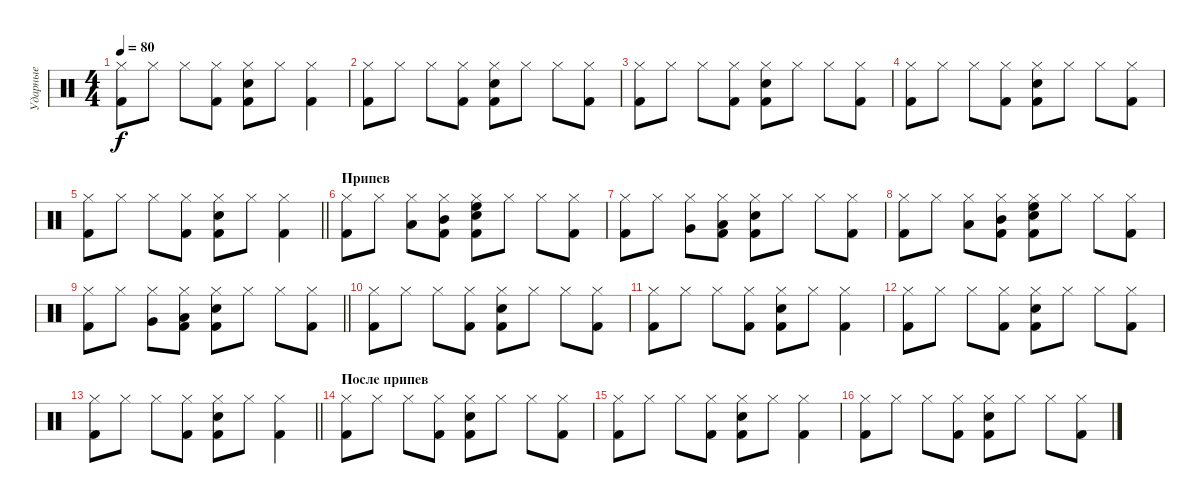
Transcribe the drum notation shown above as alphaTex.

\track ("Ударные" "Ударные") {instrument percussion}
\staff {score}
\articulation defaults
\ts (4 4)
\tempo 80
\clef neutral
\ks c
("Kick (hit) 2" "Hi-Hat (closed)").8{dy f} "Hi-Hat (closed)".8 "Hi-Hat (closed)".8 ("Kick (hit) 2" "Hi-Hat (closed)").8 ("Snare (hit) 2" "Kick (hit) 2" "Hi-Hat (closed)").8 "Hi-Hat (closed)".8 ("Kick (hit) 2" "Hi-Hat (closed)").4 |
("Kick (hit) 2" "Hi-Hat (closed)").8 "Hi-Hat (closed)".8 "Hi-Hat (closed)".8 ("Kick (hit) 2" "Hi-Hat (closed)").8 ("Snare (hit) 2" "Kick (hit) 2" "Hi-Hat (closed)").8 "Hi-Hat (closed)".8 "Hi-Hat (closed)".8 ("Kick (hit) 2" "Hi-Hat (closed)").8 |
("Kick (hit) 2" "Hi-Hat (closed)").8 "Hi-Hat (closed)".8 "Hi-Hat (closed)".8 ("Kick (hit) 2" "Hi-Hat (closed)").8 ("Snare (hit) 2" "Kick (hit) 2" "Hi-Hat (closed)").8 "Hi-Hat (closed)".8 "Hi-Hat (closed)".8 ("Kick (hit) 2" "Hi-Hat (closed)").8 |
("Kick (hit) 2" "Hi-Hat (closed)").8 "Hi-Hat (closed)".8 "Hi-Hat (closed)".8 ("Kick (hit) 2" "Hi-Hat (closed)").8 ("Snare (hit) 2" "Kick (hit) 2" "Hi-Hat (closed)").8 "Hi-Hat (closed)".8 "Hi-Hat (closed)".8 ("Kick (hit) 2" "Hi-Hat (closed)").8 |
\barLineRight lightlight
("Kick (hit) 2" "Hi-Hat (closed)").8 "Hi-Hat (closed)".8 "Hi-Hat (closed)".8 ("Kick (hit) 2" "Hi-Hat (closed)").8 ("Snare (hit) 2" "Kick (hit) 2" "Hi-Hat (closed)").8 "Hi-Hat (closed)".8 ("Kick (hit) 2" "Hi-Hat (closed)").4 |
\section ("" "Припев")
("Kick (hit) 2" "Hi-Hat (closed)").8 "Hi-Hat (closed)".8 ("Hi-Hat (closed)" "Low Tom (hit)").8 ("Kick (hit) 2" "Hi-Hat (closed)" "Mid Tom (hit)").8 ("Snare (hit) 2" "Kick (hit) 2" "Hi-Hat (closed)" "High Floor Tom (hit)").8 "Hi-Hat (closed)".8 "Hi-Hat (closed)".8 ("Kick (hit) 2" "Hi-Hat (closed)").8 |
("Kick (hit) 2" "Hi-Hat (closed)").8 "Hi-Hat (closed)".8 ("Hi-Hat (closed)" "Very Low Tom (hit)").8 ("Kick (hit) 2" "Hi-Hat (closed)" "Low Floor Tom (hit)").8 ("Snare (hit) 2" "Kick (hit) 2" "Hi-Hat (closed)").8 "Hi-Hat (closed)".8 "Hi-Hat (closed)".8 ("Kick (hit) 2" "Hi-Hat (closed)").8 |
("Kick (hit) 2" "Hi-Hat (closed)").8 "Hi-Hat (closed)".8 ("Hi-Hat (closed)" "Low Tom (hit)").8 ("Kick (hit) 2" "Hi-Hat (closed)" "Mid Tom (hit)").8 ("Snare (hit) 2" "Kick (hit) 2" "Hi-Hat (closed)" "High Floor Tom (hit)").8 "Hi-Hat (closed)".8 "Hi-Hat (closed)".8 ("Kick (hit) 2" "Hi-Hat (closed)").8 |
\barLineRight lightlight
("Kick (hit) 2" "Hi-Hat (closed)").8 "Hi-Hat (closed)".8 ("Hi-Hat (closed)" "Very Low Tom (hit)").8 ("Kick (hit) 2" "Hi-Hat (closed)" "Low Floor Tom (hit)").8 ("Snare (hit) 2" "Kick (hit) 2" "Hi-Hat (closed)").8 "Hi-Hat (closed)".8 "Hi-Hat (closed)".8 ("Kick (hit) 2" "Hi-Hat (closed)").8 |
("Kick (hit) 2" "Hi-Hat (closed)").8 "Hi-Hat (closed)".8 "Hi-Hat (closed)".8 ("Kick (hit) 2" "Hi-Hat (closed)").8 ("Snare (hit) 2" "Kick (hit) 2" "Hi-Hat (closed)").8 "Hi-Hat (closed)".8 "Hi-Hat (closed)".8 ("Kick (hit) 2" "Hi-Hat (closed)").8 |
("Kick (hit) 2" "Hi-Hat (closed)").8 "Hi-Hat (closed)".8 "Hi-Hat (closed)".8 ("Kick (hit) 2" "Hi-Hat (closed)").8 ("Snare (hit) 2" "Kick (hit) 2" "Hi-Hat (closed)").8 "Hi-Hat (closed)".8 ("Kick (hit) 2" "Hi-Hat (closed)").4 |
("Kick (hit) 2" "Hi-Hat (closed)").8 "Hi-Hat (closed)".8 "Hi-Hat (closed)".8 ("Kick (hit) 2" "Hi-Hat (closed)").8 ("Snare (hit) 2" "Kick (hit) 2" "Hi-Hat (closed)").8 "Hi-Hat (closed)".8 "Hi-Hat (closed)".8 ("Kick (hit) 2" "Hi-Hat (closed)").8 |
\barLineRight lightlight
("Kick (hit) 2" "Hi-Hat (closed)").8 "Hi-Hat (closed)".8 "Hi-Hat (closed)".8 ("Kick (hit) 2" "Hi-Hat (closed)").8 ("Snare (hit) 2" "Kick (hit) 2" "Hi-Hat (closed)").8 "Hi-Hat (closed)".8 ("Kick (hit) 2" "Hi-Hat (closed)").4 |
\section ("" "После припев")
("Kick (hit) 2" "Hi-Hat (closed)").8 "Hi-Hat (closed)".8 "Hi-Hat (closed)".8 ("Kick (hit) 2" "Hi-Hat (closed)").8 ("Snare (hit) 2" "Kick (hit) 2" "Hi-Hat (closed)").8 "Hi-Hat (closed)".8 "Hi-Hat (closed)".8 ("Kick (hit) 2" "Hi-Hat (closed)").8 |
("Kick (hit) 2" "Hi-Hat (closed)").8 "Hi-Hat (closed)".8 "Hi-Hat (closed)".8 ("Kick (hit) 2" "Hi-Hat (closed)").8 ("Snare (hit) 2" "Kick (hit) 2" "Hi-Hat (closed)").8 "Hi-Hat (closed)".8 ("Kick (hit) 2" "Hi-Hat (closed)").4 |
("Kick (hit) 2" "Hi-Hat (closed)").8 "Hi-Hat (closed)".8 "Hi-Hat (closed)".8 ("Kick (hit) 2" "Hi-Hat (closed)").8 ("Snare (hit) 2" "Kick (hit) 2" "Hi-Hat (closed)").8 "Hi-Hat (closed)".8 "Hi-Hat (closed)".8 ("Kick (hit) 2" "Hi-Hat (closed)").8
